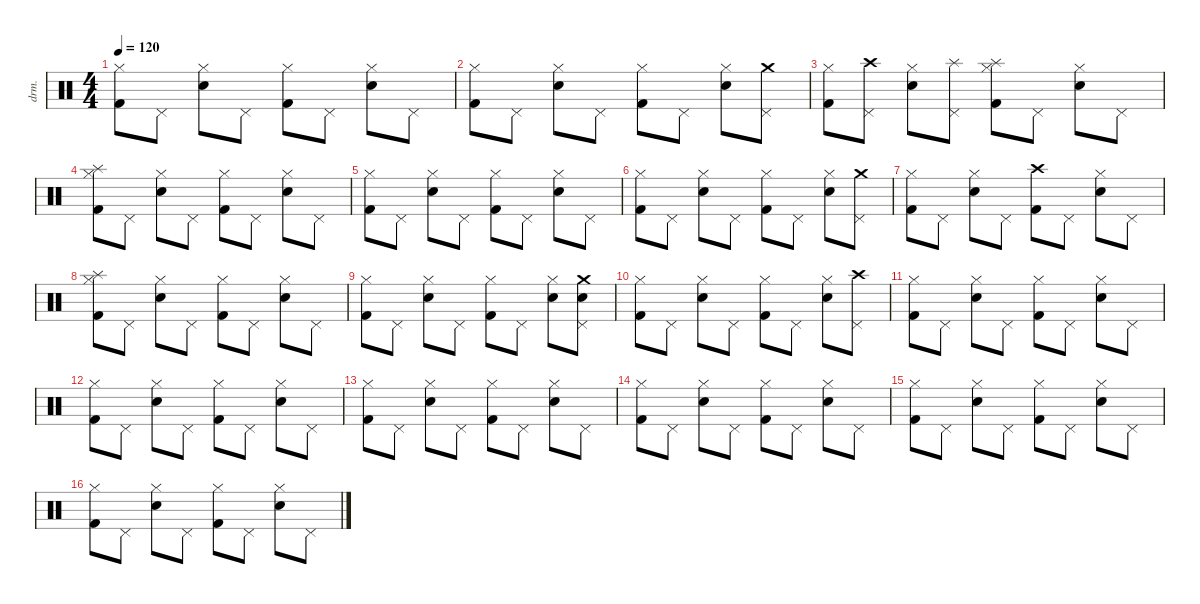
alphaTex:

\defaultSystemsLayout 4
\hideDynamics
\bracketExtendMode nobrackets
\otherSystemsTrackNameOrientation horizontal
\track ("Percussion" "drm.") {instrument percussion}
\staff {score}
\articulation defaults
\ts (4 4)
\tempo 120
\clef neutral
\ks c
("Kick (hit) 2" "Hi-Hat (closed)").8{dy f beam Down} "Pedal Hi-Hat (hit)".8{beam Down} ("Snare (hit) 2" "Hi-Hat (closed)").8{beam Down} "Pedal Hi-Hat (hit)".8{beam Down} ("Kick (hit) 2" "Hi-Hat (closed)").8{beam Down} "Pedal Hi-Hat (hit)".8{beam Down} ("Snare (hit) 2" "Hi-Hat (closed)").8{beam Down} "Pedal Hi-Hat (hit)".8{beam Down} |
("Kick (hit) 2" "Hi-Hat (closed)").8{beam Down} "Pedal Hi-Hat (hit)".8{beam Down} ("Snare (hit) 2" "Hi-Hat (closed)").8{beam Down} "Pedal Hi-Hat (hit)".8{beam Down} ("Kick (hit) 2" "Hi-Hat (closed)").8{beam Down} "Pedal Hi-Hat (hit)".8{beam Down} ("Snare (hit) 2" "Hi-Hat (closed)").8{beam Down} ("Pedal Hi-Hat (hit)" "Crash medium (hit)").8{beam Down} |
("Kick (hit) 2" "Hi-Hat (closed)").8{beam Down} ("Pedal Hi-Hat (hit)" "Crash high (hit)").8{beam Down} ("Snare (hit) 2" "Hi-Hat (closed)").8{beam Down} ("Pedal Hi-Hat (hit)" "Splash (hit)").8{beam Down} ("Kick (hit) 2" "Hi-Hat (closed)" "Splash (hit)").8{beam Down} "Pedal Hi-Hat (hit)".8{beam Down} ("Snare (hit) 2" "Hi-Hat (closed)").8{beam Down} "Pedal Hi-Hat (hit)".8{beam Down} |
("Kick (hit) 2" "Hi-Hat (closed)" "Splash (hit)").8{beam Down} "Pedal Hi-Hat (hit)".8{beam Down} ("Snare (hit) 2" "Hi-Hat (closed)").8{beam Down} "Pedal Hi-Hat (hit)".8{beam Down} ("Kick (hit) 2" "Hi-Hat (closed)").8{beam Down} "Pedal Hi-Hat (hit)".8{beam Down} ("Snare (hit) 2" "Hi-Hat (closed)").8{beam Down} "Pedal Hi-Hat (hit)".8{beam Down} |
("Kick (hit) 2" "Hi-Hat (closed)").8{beam Down} "Pedal Hi-Hat (hit)".8{beam Down} ("Snare (hit) 2" "Hi-Hat (closed)").8{beam Down} "Pedal Hi-Hat (hit)".8{beam Down} ("Kick (hit) 2" "Hi-Hat (closed)").8{beam Down} "Pedal Hi-Hat (hit)".8{beam Down} ("Snare (hit) 2" "Hi-Hat (closed)").8{beam Down} "Pedal Hi-Hat (hit)".8{beam Down} |
("Kick (hit) 2" "Hi-Hat (closed)").8{beam Down} "Pedal Hi-Hat (hit)".8{beam Down} ("Snare (hit) 2" "Hi-Hat (closed)").8{beam Down} "Pedal Hi-Hat (hit)".8{beam Down} ("Kick (hit) 2" "Hi-Hat (closed)").8{beam Down} "Pedal Hi-Hat (hit)".8{beam Down} ("Snare (hit) 2" "Hi-Hat (closed)").8{beam Down} ("Pedal Hi-Hat (hit)" "Crash medium (hit)").8{beam Down} |
("Kick (hit) 2" "Hi-Hat (closed)").8{beam Down} "Pedal Hi-Hat (hit)".8{beam Down} ("Snare (hit) 2" "Hi-Hat (closed)").8{beam Down} "Pedal Hi-Hat (hit)".8{beam Down} ("Kick (hit) 2" "Crash high (hit)").8{beam Down} "Pedal Hi-Hat (hit)".8{beam Down} ("Snare (hit) 2" "Hi-Hat (closed)").8{beam Down} "Pedal Hi-Hat (hit)".8{beam Down} |
("Kick (hit) 2" "Hi-Hat (closed)" "Splash (hit)").8{beam Down} "Pedal Hi-Hat (hit)".8{beam Down} ("Snare (hit) 2" "Hi-Hat (closed)").8{beam Down} "Pedal Hi-Hat (hit)".8{beam Down} ("Kick (hit) 2" "Hi-Hat (closed)").8{beam Down} "Pedal Hi-Hat (hit)".8{beam Down} ("Snare (hit) 2" "Hi-Hat (closed)").8{beam Down} "Pedal Hi-Hat (hit)".8{beam Down} |
("Kick (hit) 2" "Hi-Hat (closed)").8{beam Down} "Pedal Hi-Hat (hit)".8{beam Down} ("Snare (hit) 2" "Hi-Hat (closed)").8{beam Down} "Pedal Hi-Hat (hit)".8{beam Down} ("Kick (hit) 2" "Hi-Hat (closed)").8{beam Down} "Pedal Hi-Hat (hit)".8{beam Down} ("Snare (hit) 2" "Hi-Hat (closed)").8{beam Down} ("Pedal Hi-Hat (hit)" "Crash medium (hit)" "Snare (hit) 2").8{beam Down} |
("Kick (hit) 2" "Hi-Hat (closed)").8{beam Down} "Pedal Hi-Hat (hit)".8{beam Down} ("Snare (hit) 2" "Hi-Hat (closed)").8{beam Down} "Pedal Hi-Hat (hit)".8{beam Down} ("Kick (hit) 2" "Hi-Hat (closed)").8{beam Down} "Pedal Hi-Hat (hit)".8{beam Down} ("Snare (hit) 2" "Hi-Hat (closed)").8{beam Down} ("Pedal Hi-Hat (hit)" "Crash high (hit)").8{beam Down} |
("Kick (hit) 2" "Hi-Hat (closed)").8{beam Down} "Pedal Hi-Hat (hit)".8{beam Down} ("Snare (hit) 2" "Hi-Hat (closed)").8{beam Down} "Pedal Hi-Hat (hit)".8{beam Down} ("Kick (hit) 2" "Hi-Hat (closed)").8{beam Down} "Pedal Hi-Hat (hit)".8{beam Down} ("Snare (hit) 2" "Hi-Hat (closed)").8{beam Down} "Pedal Hi-Hat (hit)".8{beam Down} |
("Kick (hit) 2" "Hi-Hat (closed)").8{beam Down} "Pedal Hi-Hat (hit)".8{beam Down} ("Snare (hit) 2" "Hi-Hat (closed)").8{beam Down} "Pedal Hi-Hat (hit)".8{beam Down} ("Kick (hit) 2" "Hi-Hat (closed)").8{beam Down} "Pedal Hi-Hat (hit)".8{beam Down} ("Snare (hit) 2" "Hi-Hat (closed)").8{beam Down} "Pedal Hi-Hat (hit)".8{beam Down} |
("Kick (hit) 2" "Hi-Hat (closed)").8{beam Down} "Pedal Hi-Hat (hit)".8{beam Down} ("Snare (hit) 2" "Hi-Hat (closed)").8{beam Down} "Pedal Hi-Hat (hit)".8{beam Down} ("Kick (hit) 2" "Hi-Hat (closed)").8{beam Down} "Pedal Hi-Hat (hit)".8{beam Down} ("Snare (hit) 2" "Hi-Hat (closed)").8{beam Down} "Pedal Hi-Hat (hit)".8{beam Down} |
("Kick (hit) 2" "Hi-Hat (closed)").8{beam Down} "Pedal Hi-Hat (hit)".8{beam Down} ("Snare (hit) 2" "Hi-Hat (closed)").8{beam Down} "Pedal Hi-Hat (hit)".8{beam Down} ("Kick (hit) 2" "Hi-Hat (closed)").8{beam Down} "Pedal Hi-Hat (hit)".8{beam Down} ("Snare (hit) 2" "Hi-Hat (closed)").8{beam Down} "Pedal Hi-Hat (hit)".8{beam Down} |
("Kick (hit) 2" "Hi-Hat (closed)").8{beam Down} "Pedal Hi-Hat (hit)".8{beam Down} ("Snare (hit) 2" "Hi-Hat (closed)").8{beam Down} "Pedal Hi-Hat (hit)".8{beam Down} ("Kick (hit) 2" "Hi-Hat (closed)").8{beam Down} "Pedal Hi-Hat (hit)".8{beam Down} ("Snare (hit) 2" "Hi-Hat (closed)").8{beam Down} "Pedal Hi-Hat (hit)".8{beam Down} |
("Kick (hit) 2" "Hi-Hat (closed)").8{beam Down} "Pedal Hi-Hat (hit)".8{beam Down} ("Snare (hit) 2" "Hi-Hat (closed)").8{beam Down} "Pedal Hi-Hat (hit)".8{beam Down} ("Kick (hit) 2" "Hi-Hat (closed)").8{beam Down} "Pedal Hi-Hat (hit)".8{beam Down} ("Snare (hit) 2" "Hi-Hat (closed)").8{beam Down} "Pedal Hi-Hat (hit)".8{beam Down}
